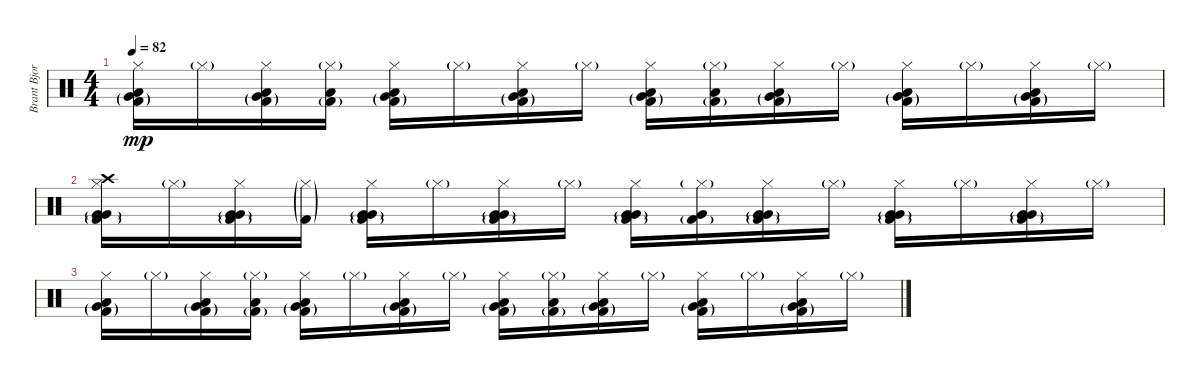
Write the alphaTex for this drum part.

\track ("Brant Bjork" "Brant Bjor") {instrument percussion}
\staff {score}
\articulation defaults
\ts (4 4)
\tempo 82
\clef neutral
\ks c
("Very Low Tom (hit)"{g} "Low Tom (hit)" "Kick (hit) 2"{g} "Hi-Hat (closed)").16{dy mp} "Hi-Hat (closed)"{g}.16 ("Very Low Tom (hit)"{g} "Low Tom (hit)" "Kick (hit) 2"{g} "Hi-Hat (closed)").16 ("Low Tom (hit)" "Kick (hit) 2"{g} "Hi-Hat (closed)"{g}).16 ("Very Low Tom (hit)"{g} "Low Tom (hit)" "Kick (hit) 2"{g} "Hi-Hat (closed)").16 "Hi-Hat (closed)"{g}.16 ("Very Low Tom (hit)"{g} "Low Tom (hit)" "Kick (hit) 2"{g} "Hi-Hat (closed)").16 "Hi-Hat (closed)"{g}.16 ("Very Low Tom (hit)"{g} "Low Tom (hit)" "Kick (hit) 2"{g} "Hi-Hat (closed)").16 ("Low Tom (hit)" "Kick (hit) 2"{g} "Hi-Hat (closed)"{g}).16 ("Very Low Tom (hit)"{g} "Low Tom (hit)" "Kick (hit) 2"{g} "Hi-Hat (closed)").16 "Hi-Hat (closed)"{g}.16 ("Very Low Tom (hit)"{g} "Low Tom (hit)" "Kick (hit) 2"{g} "Hi-Hat (closed)").16 "Hi-Hat (closed)"{g}.16 ("Very Low Tom (hit)"{g} "Low Tom (hit)" "Kick (hit) 2"{g} "Hi-Hat (closed)").16 "Hi-Hat (closed)"{g}.16 |
("Crash high (hit)" "Very Low Tom (hit)"{g} "Very Low Tom (hit)" "Kick (hit) 2"{g} "Hi-Hat (closed)").16 "Hi-Hat (closed)"{g}.16 ("Very Low Tom (hit)"{g} "Very Low Tom (hit)" "Kick (hit) 2"{g} "Hi-Hat (closed)").16 ("Kick (hit) 2"{g} "Hi-Hat (closed)"{g}).16 ("Very Low Tom (hit)"{g} "Very Low Tom (hit)" "Kick (hit) 2"{g} "Hi-Hat (closed)").16 "Hi-Hat (closed)"{g}.16 ("Very Low Tom (hit)"{g} "Very Low Tom (hit)" "Kick (hit) 2"{g} "Hi-Hat (closed)").16 "Hi-Hat (closed)"{g}.16 ("Very Low Tom (hit)"{g} "Very Low Tom (hit)" "Kick (hit) 2"{g} "Hi-Hat (closed)").16 ("Very Low Tom (hit)" "Kick (hit) 2"{g} "Hi-Hat (closed)"{g}).16 ("Very Low Tom (hit)"{g} "Very Low Tom (hit)" "Kick (hit) 2"{g} "Hi-Hat (closed)").16 "Hi-Hat (closed)"{g}.16 ("Very Low Tom (hit)"{g} "Very Low Tom (hit)" "Kick (hit) 2"{g} "Hi-Hat (closed)").16 "Hi-Hat (closed)"{g}.16 ("Very Low Tom (hit)"{g} "Very Low Tom (hit)" "Kick (hit) 2"{g} "Hi-Hat (closed)").16 "Hi-Hat (closed)"{g}.16 |
("Very Low Tom (hit)"{g} "Low Tom (hit)" "Kick (hit) 2"{g} "Hi-Hat (closed)").16 "Hi-Hat (closed)"{g}.16 ("Very Low Tom (hit)"{g} "Low Tom (hit)" "Kick (hit) 2"{g} "Hi-Hat (closed)").16 ("Low Tom (hit)" "Kick (hit) 2"{g} "Hi-Hat (closed)"{g}).16 ("Very Low Tom (hit)"{g} "Low Tom (hit)" "Kick (hit) 2"{g} "Hi-Hat (closed)").16 "Hi-Hat (closed)"{g}.16 ("Very Low Tom (hit)"{g} "Low Tom (hit)" "Kick (hit) 2"{g} "Hi-Hat (closed)").16 "Hi-Hat (closed)"{g}.16 ("Very Low Tom (hit)"{g} "Low Tom (hit)" "Kick (hit) 2"{g} "Hi-Hat (closed)").16 ("Low Tom (hit)" "Kick (hit) 2"{g} "Hi-Hat (closed)"{g}).16 ("Very Low Tom (hit)"{g} "Low Tom (hit)" "Kick (hit) 2"{g} "Hi-Hat (closed)").16 "Hi-Hat (closed)"{g}.16 ("Very Low Tom (hit)"{g} "Low Tom (hit)" "Kick (hit) 2"{g} "Hi-Hat (closed)").16 "Hi-Hat (closed)"{g}.16 ("Very Low Tom (hit)"{g} "Low Tom (hit)" "Kick (hit) 2"{g} "Hi-Hat (closed)").16 "Hi-Hat (closed)"{g}.16
